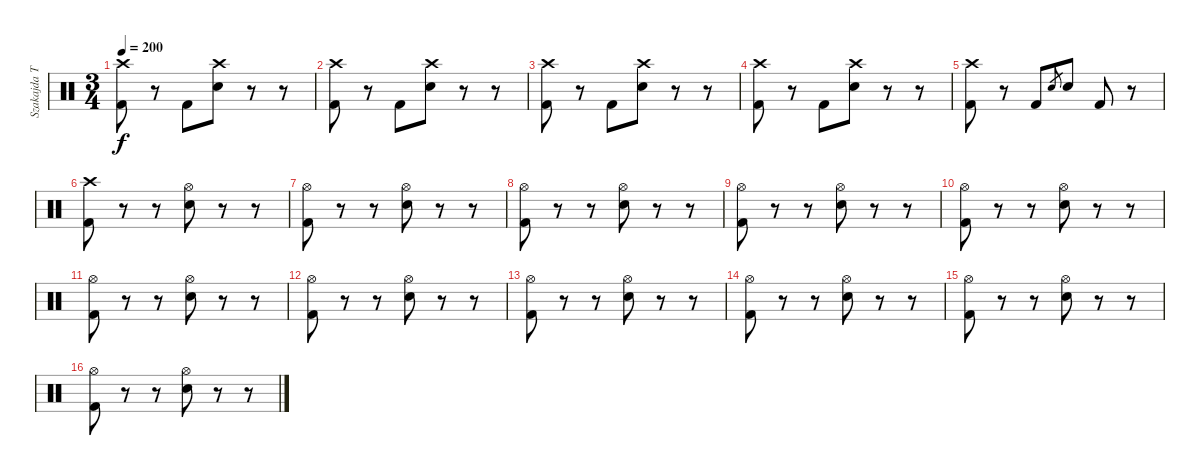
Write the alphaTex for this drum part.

\track ("Szakajda Tibi" "Szakajda T") {instrument percussion}
\staff {score}
\articulation defaults
\ts (3 4)
\tempo 200
\clef neutral
\ks c
("Crash high (hit)" "Kick (hit) 2").8{dy f} r.8 "Kick (hit) 2".8 ("Crash high (hit)" "Electric Snare (hit)").8 r.8 r.8 |
("Crash high (hit)" "Kick (hit) 2").8 r.8 "Kick (hit) 2".8 ("Crash high (hit)" "Electric Snare (hit)").8 r.8 r.8 |
("Crash high (hit)" "Kick (hit) 2").8 r.8 "Kick (hit) 2".8 ("Crash high (hit)" "Electric Snare (hit)").8 r.8 r.8 |
("Crash high (hit)" "Kick (hit) 2").8 r.8 "Kick (hit) 2".8 ("Crash high (hit)" "Electric Snare (hit)").8 r.8 r.8 |
("Crash high (hit)" "Kick (hit) 2").8 r.8 "Kick (hit) 2".8 "Electric Snare (hit)".8{gr} "Electric Snare (hit)".8 "Kick (hit) 2".8 r.8 |
("Crash high (hit)" "Kick (hit) 2").8 r.8 r.8 ("Hi-Hat (open)" "Electric Snare (hit)").8 r.8 r.8 |
("Hi-Hat (open)" "Kick (hit) 2").8 r.8 r.8 ("Hi-Hat (open)" "Electric Snare (hit)").8 r.8 r.8 |
("Hi-Hat (open)" "Kick (hit) 2").8 r.8 r.8 ("Hi-Hat (open)" "Electric Snare (hit)").8 r.8 r.8 |
("Hi-Hat (open)" "Kick (hit) 2").8 r.8 r.8 ("Hi-Hat (open)" "Electric Snare (hit)").8 r.8 r.8 |
("Hi-Hat (open)" "Kick (hit) 2").8 r.8 r.8 ("Hi-Hat (open)" "Electric Snare (hit)").8 r.8 r.8 |
("Hi-Hat (open)" "Kick (hit) 2").8 r.8 r.8 ("Hi-Hat (open)" "Electric Snare (hit)").8 r.8 r.8 |
("Hi-Hat (open)" "Kick (hit) 2").8 r.8 r.8 ("Hi-Hat (open)" "Electric Snare (hit)").8 r.8 r.8 |
("Hi-Hat (open)" "Kick (hit) 2").8 r.8 r.8 ("Hi-Hat (open)" "Electric Snare (hit)").8 r.8 r.8 |
("Hi-Hat (open)" "Kick (hit) 2").8 r.8 r.8 ("Hi-Hat (open)" "Electric Snare (hit)").8 r.8 r.8 |
("Hi-Hat (open)" "Kick (hit) 2").8 r.8 r.8 ("Hi-Hat (open)" "Electric Snare (hit)").8 r.8 r.8 |
("Hi-Hat (open)" "Kick (hit) 2").8 r.8 r.8 ("Hi-Hat (open)" "Electric Snare (hit)").8 r.8 r.8
